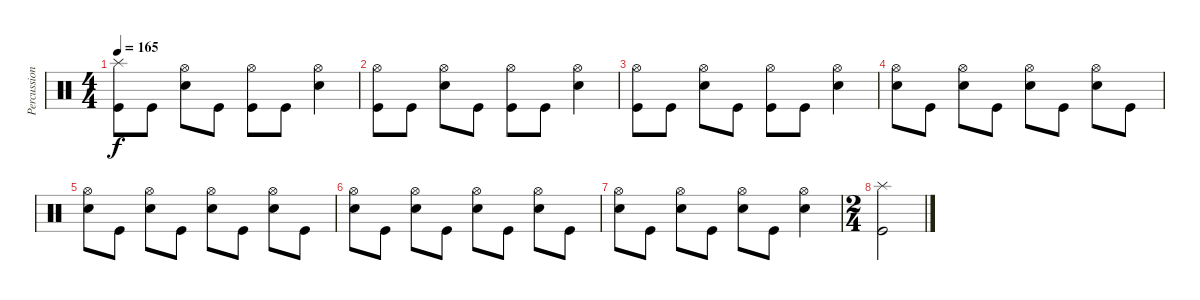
\track ("Percussion" "Percussion") {instrument percussion}
\staff {score}
\articulation defaults
\ts (4 4)
\tempo 165
\clef neutral
\ks c
("Splash (hit)" "Kick (hit)").8{dy f} "Kick (hit)".8 ("Hi-Hat (open)" "Snare (hit) 2").8 "Kick (hit)".8 ("Hi-Hat (open)" "Kick (hit)").8 "Kick (hit)".8 ("Hi-Hat (open)" "Snare (hit) 2").4 |
("Hi-Hat (open)" "Kick (hit)").8 "Kick (hit)".8 ("Hi-Hat (open)" "Snare (hit) 2").8 "Kick (hit)".8 ("Hi-Hat (open)" "Kick (hit)").8 "Kick (hit)".8 ("Hi-Hat (open)" "Snare (hit) 2").4 |
("Hi-Hat (open)" "Kick (hit)").8 "Kick (hit)".8 ("Hi-Hat (open)" "Snare (hit) 2").8 "Kick (hit)".8 ("Hi-Hat (open)" "Kick (hit)").8 "Kick (hit)".8 ("Hi-Hat (open)" "Snare (hit) 2").4 |
("Hi-Hat (open)" "Snare (hit) 2").8 "Kick (hit)".8 ("Hi-Hat (open)" "Snare (hit) 2").8 "Kick (hit)".8 ("Hi-Hat (open)" "Snare (hit) 2").8 "Kick (hit)".8 ("Hi-Hat (open)" "Snare (hit) 2").8 "Kick (hit)".8 |
("Hi-Hat (open)" "Snare (hit) 2").8 "Kick (hit)".8 ("Hi-Hat (open)" "Snare (hit) 2").8 "Kick (hit)".8 ("Hi-Hat (open)" "Snare (hit) 2").8 "Kick (hit)".8 ("Hi-Hat (open)" "Snare (hit) 2").8 "Kick (hit)".8 |
("Hi-Hat (open)" "Snare (hit) 2").8 "Kick (hit)".8 ("Hi-Hat (open)" "Snare (hit) 2").8 "Kick (hit)".8 ("Hi-Hat (open)" "Snare (hit) 2").8 "Kick (hit)".8 ("Hi-Hat (open)" "Snare (hit) 2").8 "Kick (hit)".8 |
("Hi-Hat (open)" "Snare (hit) 2").8 "Kick (hit)".8 ("Hi-Hat (open)" "Snare (hit) 2").8 "Kick (hit)".8 ("Hi-Hat (open)" "Snare (hit) 2").8 "Kick (hit)".8 ("Hi-Hat (open)" "Snare (hit) 2").4 |
\ts (2 4)
("Splash (hit)" "Kick (hit)").2
